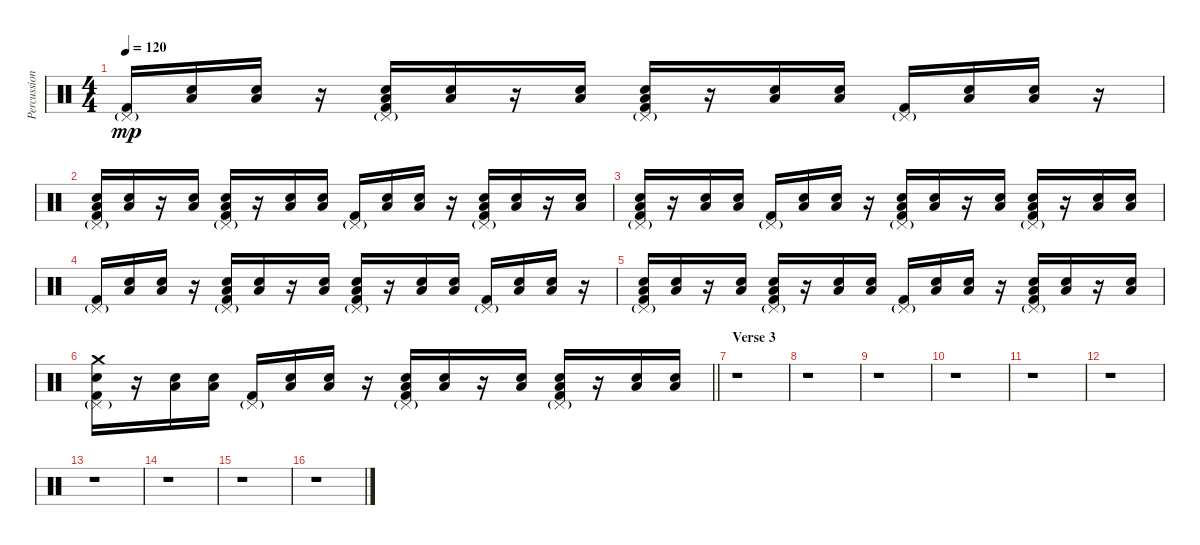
\track ("Percussion" "Percussion") {instrument percussion}
\staff {score}
\articulation defaults
\ts (4 4)
\tempo 120
\clef neutral
\ks c
("Pedal Hi-Hat (hit)"{g} "Kick (hit) 2").16{dy mp} ("Electric Snare (hit)" "Low Tom (hit)").16 ("Electric Snare (hit)" "Low Tom (hit)").16 r.16 ("Pedal Hi-Hat (hit)"{g} "Electric Snare (hit)" "Low Tom (hit)" "Kick (hit) 2").16 ("Electric Snare (hit)" "Low Tom (hit)").16 r.16 ("Electric Snare (hit)" "Low Tom (hit)").16 ("Pedal Hi-Hat (hit)"{g} "Electric Snare (hit)" "Low Tom (hit)" "Kick (hit) 2").16 r.16 ("Electric Snare (hit)" "Low Tom (hit)").16 ("Electric Snare (hit)" "Low Tom (hit)").16 ("Pedal Hi-Hat (hit)"{g} "Kick (hit) 2").16 ("Electric Snare (hit)" "Low Tom (hit)").16 ("Electric Snare (hit)" "Low Tom (hit)").16 r.16 |
("Pedal Hi-Hat (hit)"{g} "Electric Snare (hit)" "Low Tom (hit)" "Kick (hit) 2").16 ("Electric Snare (hit)" "Low Tom (hit)").16 r.16 ("Electric Snare (hit)" "Low Tom (hit)").16 ("Pedal Hi-Hat (hit)"{g} "Electric Snare (hit)" "Low Tom (hit)" "Kick (hit) 2").16 r.16 ("Electric Snare (hit)" "Low Tom (hit)").16 ("Electric Snare (hit)" "Low Tom (hit)").16 ("Pedal Hi-Hat (hit)"{g} "Kick (hit) 2").16 ("Electric Snare (hit)" "Low Tom (hit)").16 ("Electric Snare (hit)" "Low Tom (hit)").16 r.16 ("Pedal Hi-Hat (hit)"{g} "Electric Snare (hit)" "Low Tom (hit)" "Kick (hit) 2").16 ("Electric Snare (hit)" "Low Tom (hit)").16 r.16 ("Electric Snare (hit)" "Low Tom (hit)").16 |
("Pedal Hi-Hat (hit)"{g} "Electric Snare (hit)" "Low Tom (hit)" "Kick (hit) 2").16 r.16 ("Electric Snare (hit)" "Low Tom (hit)").16 ("Electric Snare (hit)" "Low Tom (hit)").16 ("Pedal Hi-Hat (hit)"{g} "Kick (hit) 2").16 ("Electric Snare (hit)" "Low Tom (hit)").16 ("Electric Snare (hit)" "Low Tom (hit)").16 r.16 ("Pedal Hi-Hat (hit)"{g} "Electric Snare (hit)" "Low Tom (hit)" "Kick (hit) 2").16 ("Electric Snare (hit)" "Low Tom (hit)").16 r.16 ("Electric Snare (hit)" "Low Tom (hit)").16 ("Pedal Hi-Hat (hit)"{g} "Electric Snare (hit)" "Low Tom (hit)" "Kick (hit) 2").16 r.16 ("Electric Snare (hit)" "Low Tom (hit)").16 ("Electric Snare (hit)" "Low Tom (hit)").16 |
("Pedal Hi-Hat (hit)"{g} "Kick (hit) 2").16 ("Electric Snare (hit)" "Low Tom (hit)").16 ("Electric Snare (hit)" "Low Tom (hit)").16 r.16 ("Pedal Hi-Hat (hit)"{g} "Electric Snare (hit)" "Low Tom (hit)" "Kick (hit) 2").16 ("Electric Snare (hit)" "Low Tom (hit)").16 r.16 ("Electric Snare (hit)" "Low Tom (hit)").16 ("Pedal Hi-Hat (hit)"{g} "Electric Snare (hit)" "Low Tom (hit)" "Kick (hit) 2").16 r.16 ("Electric Snare (hit)" "Low Tom (hit)").16 ("Electric Snare (hit)" "Low Tom (hit)").16 ("Pedal Hi-Hat (hit)"{g} "Kick (hit) 2").16 ("Electric Snare (hit)" "Low Tom (hit)").16 ("Electric Snare (hit)" "Low Tom (hit)").16 r.16 |
("Pedal Hi-Hat (hit)"{g} "Electric Snare (hit)" "Low Tom (hit)" "Kick (hit) 2").16 ("Electric Snare (hit)" "Low Tom (hit)").16 r.16 ("Electric Snare (hit)" "Low Tom (hit)").16 ("Pedal Hi-Hat (hit)"{g} "Electric Snare (hit)" "Low Tom (hit)" "Kick (hit) 2").16 r.16 ("Electric Snare (hit)" "Low Tom (hit)").16 ("Electric Snare (hit)" "Low Tom (hit)").16 ("Pedal Hi-Hat (hit)"{g} "Kick (hit) 2").16 ("Electric Snare (hit)" "Low Tom (hit)").16 ("Electric Snare (hit)" "Low Tom (hit)").16 r.16 ("Pedal Hi-Hat (hit)"{g} "Electric Snare (hit)" "Low Tom (hit)" "Kick (hit) 2").16 ("Electric Snare (hit)" "Low Tom (hit)").16 r.16 ("Electric Snare (hit)" "Low Tom (hit)").16 |
\barLineRight lightlight
("Crash medium (hit)" "Pedal Hi-Hat (hit)"{g} "Electric Snare (hit)" "Kick (hit) 2").16 r.16 ("Electric Snare (hit)" "Low Tom (hit)").16 ("Electric Snare (hit)" "Low Tom (hit)").16 ("Pedal Hi-Hat (hit)"{g} "Kick (hit) 2").16 ("Electric Snare (hit)" "Low Tom (hit)").16 ("Electric Snare (hit)" "Low Tom (hit)").16 r.16 ("Pedal Hi-Hat (hit)"{g} "Electric Snare (hit)" "Low Tom (hit)" "Kick (hit) 2").16 ("Electric Snare (hit)" "Low Tom (hit)").16 r.16 ("Electric Snare (hit)" "Low Tom (hit)").16 ("Pedal Hi-Hat (hit)"{g} "Electric Snare (hit)" "Low Tom (hit)" "Kick (hit) 2").16 r.16 ("Electric Snare (hit)" "Low Tom (hit)").16 ("Electric Snare (hit)" "Low Tom (hit)").16 |
\section ("" "Verse 3")
r.1 |
r.1 |
r.1 |
r.1 |
r.1 |
r.1 |
r.1 |
r.1 |
r.1 |
r.1
